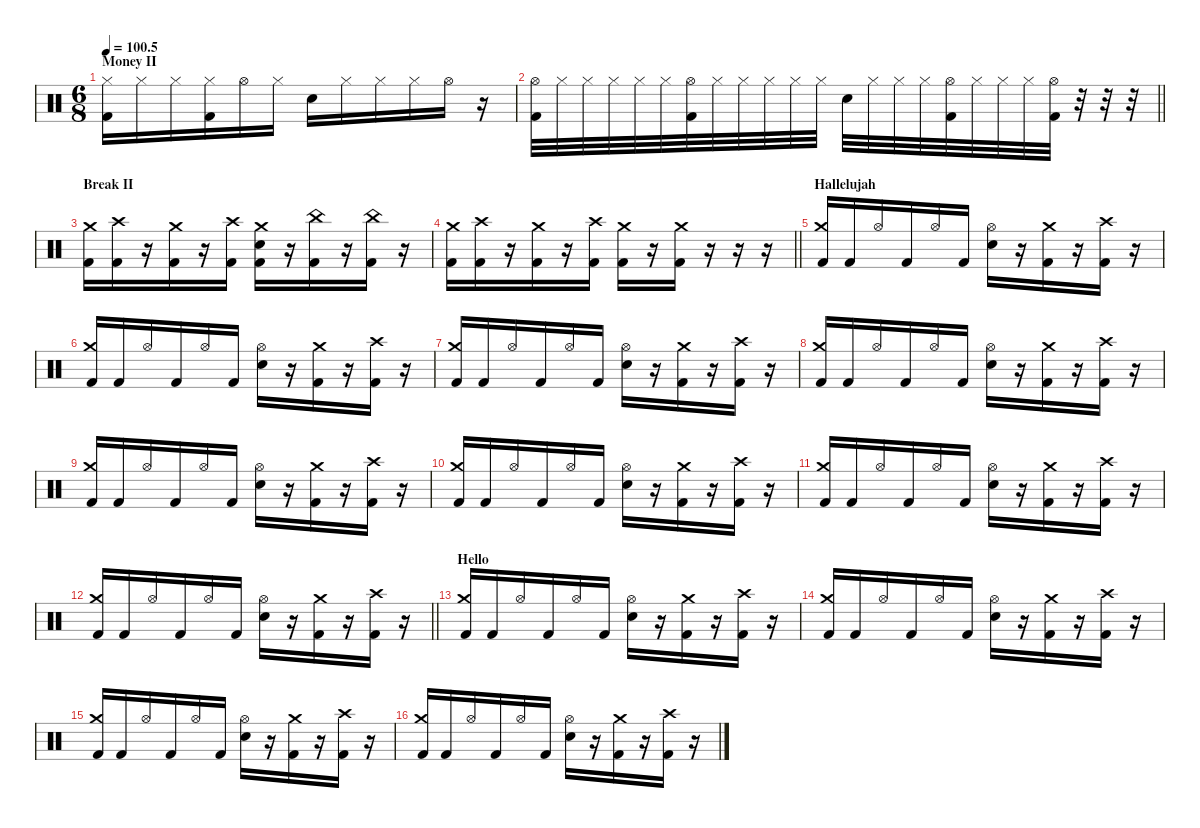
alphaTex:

\defaultSystemsLayout 4
\hideDynamics
\bracketExtendMode nobrackets
\singleTrackTrackNamePolicy hidden
\multiTrackTrackNamePolicy hidden
\firstSystemTrackNameMode fullname
\firstSystemTrackNameOrientation horizontal
\otherSystemsTrackNameOrientation horizontal
\track ("Drums" "drm.") {instrument percussion}
\staff {score}
\articulation defaults
\ts (6 8)
\section ("" "Money II")
\tempo
100.5
\accidentals auto
\clef neutral
\ottava regular
\simile none
\ks c
("Hi-Hat (closed)" "Kick (hit) 2").16{dy f beam Down} "Hi-Hat (closed)".16{beam Down} "Hi-Hat (closed)".16{beam Down} ("Hi-Hat (closed)" "Kick (hit) 2").16{beam Down} "Hi-Hat (open)".16{beam Down} "Hi-Hat (closed)".16{beam Down} "Snare (hit) 2".16{beam Down} "Hi-Hat (closed)".16{beam Down} "Hi-Hat (closed)".16{beam Down} "Hi-Hat (closed)".16{beam Down} "Hi-Hat (open)".16{beam Down} r.16{beam Down} |
\barLineRight lightlight
("Hi-Hat (open)" "Kick (hit) 2").32{beam Down} "Hi-Hat (closed)".32{beam Down} "Hi-Hat (closed)".32{beam Down} "Hi-Hat (closed)".32{beam Down} "Hi-Hat (closed)".32{beam Down} "Hi-Hat (closed)".32{beam Down} ("Hi-Hat (open)" "Kick (hit) 2").32{beam Down} "Hi-Hat (closed)".32{beam Down} "Hi-Hat (closed)".32{beam Down} "Hi-Hat (closed)".32{beam Down} "Hi-Hat (closed)".32{beam Down} "Hi-Hat (closed)".32{beam Down} "Snare (hit) 2".32{beam Down} "Hi-Hat (closed)".32{beam Down} "Hi-Hat (closed)".32{beam Down} "Hi-Hat (closed)".32{beam Down} ("Hi-Hat (open)" "Kick (hit) 2").32{beam Down} "Hi-Hat (closed)".32{beam Down} "Hi-Hat (closed)".32{beam Down} "Hi-Hat (closed)".32{beam Down} ("Hi-Hat (open)" "Kick (hit) 2").32{beam Down} r.32{beam Down} r.32{beam Down} r.32{beam Down} |
\section ("" "Break II")
("Crash medium (hit)" "Kick (hit) 2").16{beam Down} ("Crash high (hit)" "Kick (hit) 2").16{beam Down} r.16{beam Down} ("Crash medium (hit)" "Kick (hit) 2").16{beam Down} r.16{beam Down} ("Crash high (hit)" "Kick (hit) 2").16{beam Down} ("Crash medium (hit)" "Snare (hit) 2" "Kick (hit) 2").16{beam Down} r.16{beam Down} ("China (hit)" "Kick (hit) 2").16{beam Down} r.16{beam Down} ("China (hit)" "Kick (hit) 2").16{beam Down} r.16{beam Down} |
\barLineRight lightlight
("Crash medium (hit)" "Kick (hit) 2").16{beam Down} ("Crash high (hit)" "Kick (hit) 2").16{beam Down} r.16{beam Down} ("Crash medium (hit)" "Kick (hit) 2").16{beam Down} r.16{beam Down} ("Crash high (hit)" "Kick (hit) 2").16{beam Down} ("Crash medium (hit)" "Kick (hit) 2").16{beam Down} r.16{beam Down} ("Crash medium (hit)" "Kick (hit) 2").16{beam Down} r.16{beam Down} r.16{beam Down} r.16{beam Down} |
\section ("" "Hallelujah")
("Crash medium (hit)" "Kick (hit) 2").16{beam Up} "Kick (hit) 2".16{beam Up} "Hi-Hat (open)".16{beam Up} "Kick (hit) 2".16{beam Up} "Hi-Hat (open)".16{beam Up} "Kick (hit) 2".16{beam Up} ("Hi-Hat (open)" "Snare (hit) 2").16{beam Down} r.16{beam Down} ("Crash medium (hit)" "Kick (hit) 2").16{beam Down} r.16{beam Down} ("Crash high (hit)" "Kick (hit) 2").16{beam Down} r.16{beam Down} |
("Crash medium (hit)" "Kick (hit) 2").16{beam Up} "Kick (hit) 2".16{beam Up} "Hi-Hat (open)".16{beam Up} "Kick (hit) 2".16{beam Up} "Hi-Hat (open)".16{beam Up} "Kick (hit) 2".16{beam Up} ("Hi-Hat (open)" "Snare (hit) 2").16{beam Down} r.16{beam Down} ("Crash medium (hit)" "Kick (hit) 2").16{beam Down} r.16{beam Down} ("Crash high (hit)" "Kick (hit) 2").16{beam Down} r.16{beam Down} |
("Crash medium (hit)" "Kick (hit) 2").16{beam Up} "Kick (hit) 2".16{beam Up} "Hi-Hat (open)".16{beam Up} "Kick (hit) 2".16{beam Up} "Hi-Hat (open)".16{beam Up} "Kick (hit) 2".16{beam Up} ("Hi-Hat (open)" "Snare (hit) 2").16{beam Down} r.16{beam Down} ("Crash medium (hit)" "Kick (hit) 2").16{beam Down} r.16{beam Down} ("Crash high (hit)" "Kick (hit) 2").16{beam Down} r.16{beam Down} |
("Crash medium (hit)" "Kick (hit) 2").16{beam Up} "Kick (hit) 2".16{beam Up} "Hi-Hat (open)".16{beam Up} "Kick (hit) 2".16{beam Up} "Hi-Hat (open)".16{beam Up} "Kick (hit) 2".16{beam Up} ("Hi-Hat (open)" "Snare (hit) 2").16{beam Down} r.16{beam Down} ("Crash medium (hit)" "Kick (hit) 2").16{beam Down} r.16{beam Down} ("Crash high (hit)" "Kick (hit) 2").16{beam Down} r.16{beam Down} |
("Crash medium (hit)" "Kick (hit) 2").16{beam Up} "Kick (hit) 2".16{beam Up} "Hi-Hat (open)".16{beam Up} "Kick (hit) 2".16{beam Up} "Hi-Hat (open)".16{beam Up} "Kick (hit) 2".16{beam Up} ("Hi-Hat (open)" "Snare (hit) 2").16{beam Down} r.16{beam Down} ("Crash medium (hit)" "Kick (hit) 2").16{beam Down} r.16{beam Down} ("Crash high (hit)" "Kick (hit) 2").16{beam Down} r.16{beam Down} |
("Crash medium (hit)" "Kick (hit) 2").16{beam Up} "Kick (hit) 2".16{beam Up} "Hi-Hat (open)".16{beam Up} "Kick (hit) 2".16{beam Up} "Hi-Hat (open)".16{beam Up} "Kick (hit) 2".16{beam Up} ("Hi-Hat (open)" "Snare (hit) 2").16{beam Down} r.16{beam Down} ("Crash medium (hit)" "Kick (hit) 2").16{beam Down} r.16{beam Down} ("Crash high (hit)" "Kick (hit) 2").16{beam Down} r.16{beam Down} |
("Crash medium (hit)" "Kick (hit) 2").16{beam Up} "Kick (hit) 2".16{beam Up} "Hi-Hat (open)".16{beam Up} "Kick (hit) 2".16{beam Up} "Hi-Hat (open)".16{beam Up} "Kick (hit) 2".16{beam Up} ("Hi-Hat (open)" "Snare (hit) 2").16{beam Down} r.16{beam Down} ("Crash medium (hit)" "Kick (hit) 2").16{beam Down} r.16{beam Down} ("Crash high (hit)" "Kick (hit) 2").16{beam Down} r.16{beam Down} |
\barLineRight lightlight
("Crash medium (hit)" "Kick (hit) 2").16{beam Up} "Kick (hit) 2".16{beam Up} "Hi-Hat (open)".16{beam Up} "Kick (hit) 2".16{beam Up} "Hi-Hat (open)".16{beam Up} "Kick (hit) 2".16{beam Up} ("Hi-Hat (open)" "Snare (hit) 2").16{beam Down} r.16{beam Down} ("Crash medium (hit)" "Kick (hit) 2").16{beam Down} r.16{beam Down} ("Crash high (hit)" "Kick (hit) 2").16{beam Down} r.16{beam Down} |
\section ("" "Hello")
("Crash medium (hit)" "Kick (hit) 2").16{beam Up} "Kick (hit) 2".16{beam Up} "Hi-Hat (open)".16{beam Up} "Kick (hit) 2".16{beam Up} "Hi-Hat (open)".16{beam Up} "Kick (hit) 2".16{beam Up} ("Hi-Hat (open)" "Snare (hit) 2").16{beam Down} r.16{beam Down} ("Crash medium (hit)" "Kick (hit) 2").16{beam Down} r.16{beam Down} ("Crash high (hit)" "Kick (hit) 2").16{beam Down} r.16{beam Down} |
("Crash medium (hit)" "Kick (hit) 2").16{beam Up} "Kick (hit) 2".16{beam Up} "Hi-Hat (open)".16{beam Up} "Kick (hit) 2".16{beam Up} "Hi-Hat (open)".16{beam Up} "Kick (hit) 2".16{beam Up} ("Hi-Hat (open)" "Snare (hit) 2").16{beam Down} r.16{beam Down} ("Crash medium (hit)" "Kick (hit) 2").16{beam Down} r.16{beam Down} ("Crash high (hit)" "Kick (hit) 2").16{beam Down} r.16{beam Down} |
("Crash medium (hit)" "Kick (hit) 2").16{beam Up} "Kick (hit) 2".16{beam Up} "Hi-Hat (open)".16{beam Up} "Kick (hit) 2".16{beam Up} "Hi-Hat (open)".16{beam Up} "Kick (hit) 2".16{beam Up} ("Hi-Hat (open)" "Snare (hit) 2").16{beam Down} r.16{beam Down} ("Crash medium (hit)" "Kick (hit) 2").16{beam Down} r.16{beam Down} ("Crash high (hit)" "Kick (hit) 2").16{beam Down} r.16{beam Down} |
("Crash medium (hit)" "Kick (hit) 2").16{beam Up} "Kick (hit) 2".16{beam Up} "Hi-Hat (open)".16{beam Up} "Kick (hit) 2".16{beam Up} "Hi-Hat (open)".16{beam Up} "Kick (hit) 2".16{beam Up} ("Hi-Hat (open)" "Snare (hit) 2").16{beam Down} r.16{beam Down} ("Crash medium (hit)" "Kick (hit) 2").16{beam Down} r.16{beam Down} ("Crash high (hit)" "Kick (hit) 2").16{beam Down} r.16{beam Down}
